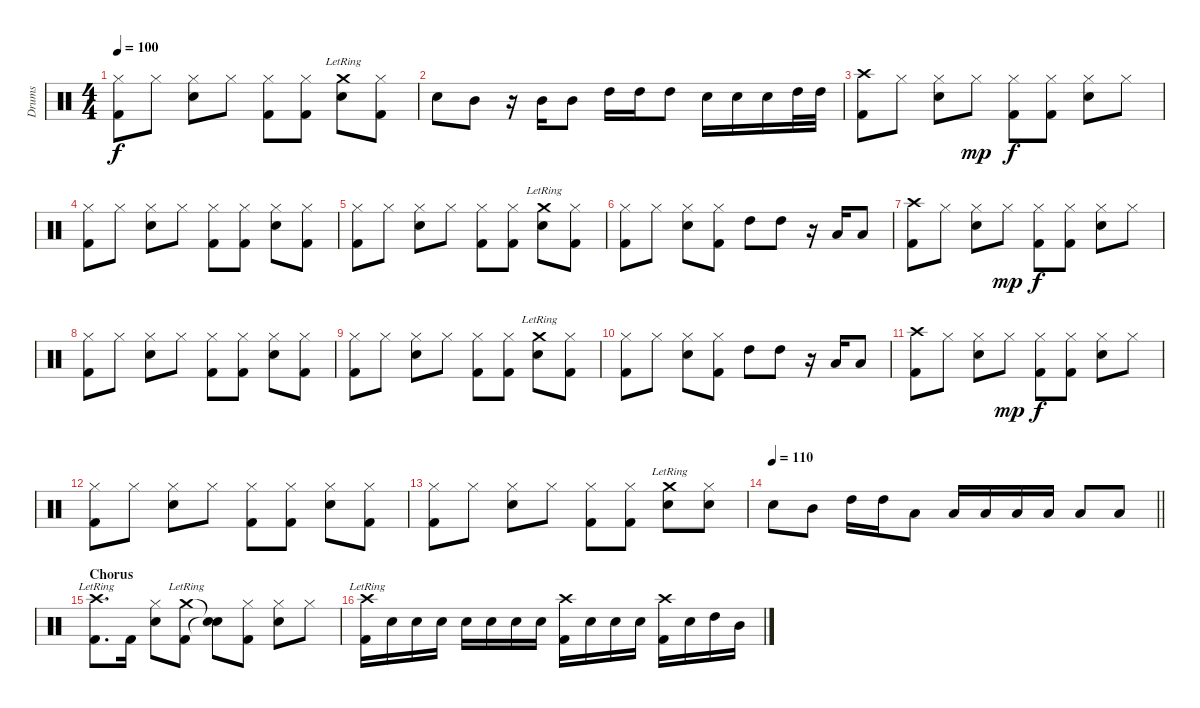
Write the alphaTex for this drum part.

\track ("Drums" "Drums") {instrument percussion}
\staff {score}
\articulation defaults
\ts (4 4)
\tempo 100
\clef neutral
\ks c
("Hi-Hat (closed)" "Kick (hit) 2").8{dy f} "Hi-Hat (closed)".8 ("Hi-Hat (closed)" "Snare (hit) 2").8 "Hi-Hat (closed)".8 ("Hi-Hat (closed)" "Kick (hit) 2").8 ("Hi-Hat (closed)" "Kick (hit) 2").8 ("Crash medium (hit)"{lr} "Snare (hit) 2").8 ("Hi-Hat (closed)" "Kick (hit) 2").8 |
"Snare (hit) 2".8 "Mid Tom (hit)".8 r.16 "Mid Tom (hit)".16 "Mid Tom (hit)".8 "High Tom (hit)".16 "High Tom (hit)".16 "High Tom (hit)".8 "Snare (hit) 2".16 "Snare (hit) 2".16 "Snare (hit) 2".16 "High Tom (hit)".32 "High Tom (hit)".32 |
("Crash high (hit)" "Kick (hit) 2").8 "Hi-Hat (closed)".8 ("Hi-Hat (closed)" "Snare (hit) 2").8 "Hi-Hat (closed)".8{dy mp} ("Hi-Hat (closed)" "Kick (hit) 2").8{dy f} ("Hi-Hat (closed)" "Kick (hit) 2").8 ("Hi-Hat (closed)" "Snare (hit) 2").8 "Hi-Hat (closed)".8 |
("Hi-Hat (closed)" "Kick (hit) 2").8 "Hi-Hat (closed)".8 ("Hi-Hat (closed)" "Snare (hit) 2").8 "Hi-Hat (closed)".8 ("Hi-Hat (closed)" "Kick (hit) 2").8 ("Hi-Hat (closed)" "Kick (hit) 2").8 ("Hi-Hat (closed)" "Snare (hit) 2").8 ("Hi-Hat (closed)" "Kick (hit) 2").8 |
("Hi-Hat (closed)" "Kick (hit) 2").8 "Hi-Hat (closed)".8 ("Hi-Hat (closed)" "Snare (hit) 2").8 "Hi-Hat (closed)".8 ("Hi-Hat (closed)" "Kick (hit) 2").8 ("Hi-Hat (closed)" "Kick (hit) 2").8 ("Crash medium (hit)"{lr} "Snare (hit) 2").8 ("Hi-Hat (closed)" "Kick (hit) 2").8 |
("Hi-Hat (closed)" "Kick (hit) 2").8 "Hi-Hat (closed)".8 ("Hi-Hat (closed)" "Snare (hit) 2").8 ("Hi-Hat (closed)" "Kick (hit) 2").8 "High Tom (hit)".8 "High Tom (hit)".8 r.16 "Low Tom (hit)".16 "Low Tom (hit)".8 |
("Crash high (hit)" "Kick (hit) 2").8 "Hi-Hat (closed)".8 ("Hi-Hat (closed)" "Snare (hit) 2").8 "Hi-Hat (closed)".8{dy mp} ("Hi-Hat (closed)" "Kick (hit) 2").8{dy f} ("Hi-Hat (closed)" "Kick (hit) 2").8 ("Hi-Hat (closed)" "Snare (hit) 2").8 "Hi-Hat (closed)".8 |
("Hi-Hat (closed)" "Kick (hit) 2").8 "Hi-Hat (closed)".8 ("Hi-Hat (closed)" "Snare (hit) 2").8 "Hi-Hat (closed)".8 ("Hi-Hat (closed)" "Kick (hit) 2").8 ("Hi-Hat (closed)" "Kick (hit) 2").8 ("Hi-Hat (closed)" "Snare (hit) 2").8 ("Hi-Hat (closed)" "Kick (hit) 2").8 |
("Hi-Hat (closed)" "Kick (hit) 2").8 "Hi-Hat (closed)".8 ("Hi-Hat (closed)" "Snare (hit) 2").8 "Hi-Hat (closed)".8 ("Hi-Hat (closed)" "Kick (hit) 2").8 ("Hi-Hat (closed)" "Kick (hit) 2").8 ("Crash medium (hit)"{lr} "Snare (hit) 2").8 ("Hi-Hat (closed)" "Kick (hit) 2").8 |
("Hi-Hat (closed)" "Kick (hit) 2").8 "Hi-Hat (closed)".8 ("Hi-Hat (closed)" "Snare (hit) 2").8 ("Hi-Hat (closed)" "Kick (hit) 2").8 "High Tom (hit)".8 "High Tom (hit)".8 r.16 "Low Tom (hit)".16 "Low Tom (hit)".8 |
("Crash high (hit)" "Kick (hit) 2").8 "Hi-Hat (closed)".8 ("Hi-Hat (closed)" "Snare (hit) 2").8 "Hi-Hat (closed)".8{dy mp} ("Hi-Hat (closed)" "Kick (hit) 2").8{dy f} ("Hi-Hat (closed)" "Kick (hit) 2").8 ("Hi-Hat (closed)" "Snare (hit) 2").8 "Hi-Hat (closed)".8 |
("Hi-Hat (closed)" "Kick (hit) 2").8 "Hi-Hat (closed)".8 ("Hi-Hat (closed)" "Snare (hit) 2").8 "Hi-Hat (closed)".8 ("Hi-Hat (closed)" "Kick (hit) 2").8 ("Hi-Hat (closed)" "Kick (hit) 2").8 ("Hi-Hat (closed)" "Snare (hit) 2").8 ("Hi-Hat (closed)" "Kick (hit) 2").8 |
("Hi-Hat (closed)" "Kick (hit) 2").8 "Hi-Hat (closed)".8 ("Hi-Hat (closed)" "Snare (hit) 2").8 "Hi-Hat (closed)".8 ("Hi-Hat (closed)" "Kick (hit) 2").8 ("Hi-Hat (closed)" "Kick (hit) 2").8 ("Crash medium (hit)"{lr} "Snare (hit) 2").8 ("Hi-Hat (closed)" "Snare (hit)").8 |
\tempo 110
\barLineRight lightlight "Snare (hit) 2".8 "Mid Tom (hit)".8 "High Tom (hit)".16 "High Tom (hit)".16 "Low Tom (hit)".8 "Low Tom (hit)".16 "Low Tom (hit)".16 "Low Tom (hit)".16 "Low Tom (hit)".16 "Low Tom (hit)".8 "Low Tom (hit)".8
|
\section ("" "Chorus")
("Crash high (hit)"{lr} "Kick (hit) 2").8{d} "Kick (hit) 2".16 ("Hi-Hat (closed)" "Snare (hit) 2").8 ("Crash medium (hit)"{lr} "Kick (hit) 2").8 ("Snare (hit)"{t} "Snare (hit)"{t}).8 ("Hi-Hat (closed)" "Kick (hit) 2").8 ("Hi-Hat (closed)" "Snare (hit) 2").8 "Hi-Hat (closed)".8 |
("Crash high (hit)"{lr} "Kick (hit) 2").16 "Snare (hit) 2".16 "Snare (hit) 2".16 "Snare (hit) 2".16 "Snare (hit) 2".16 "Snare (hit) 2".16 "Snare (hit) 2".16 "Snare (hit) 2".16 ("Crash high (hit)" "Kick (hit) 2").16 "Snare (hit) 2".16 "Snare (hit) 2".16 "Snare (hit) 2".16 ("Crash high (hit)" "Kick (hit) 2").16 "Snare (hit) 2".16 "High Tom (hit)".16 "Mid Tom (hit)".16
